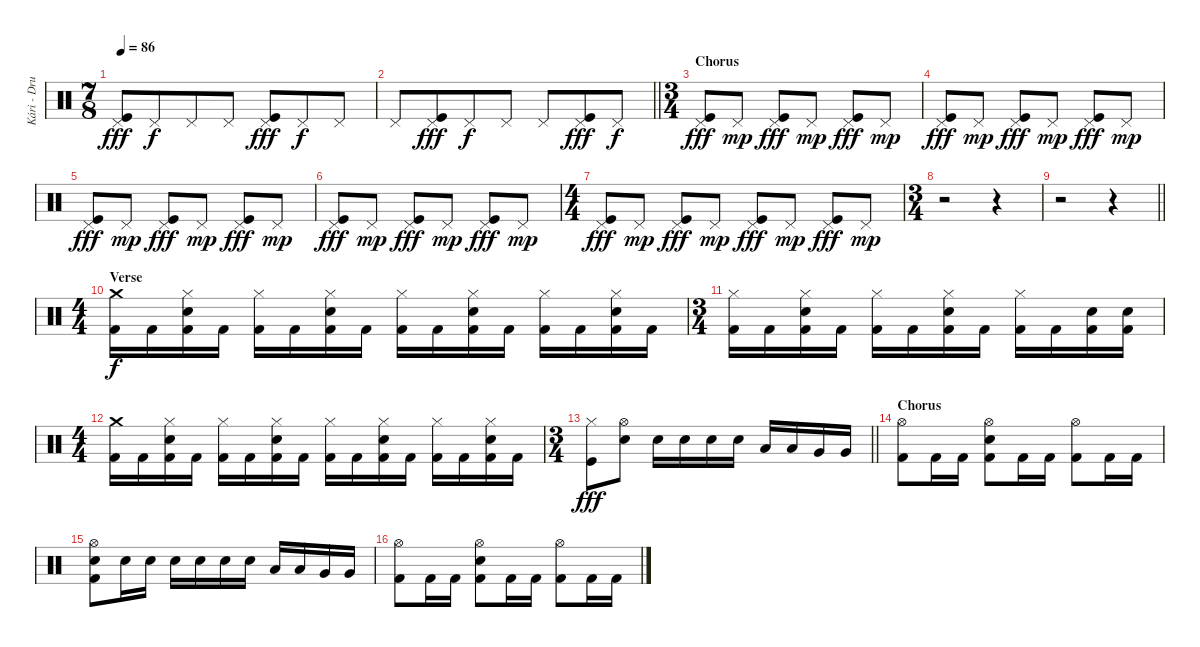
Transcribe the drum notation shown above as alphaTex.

\track ("Kári - Drums" "Kári - Dru") {instrument percussion}
\staff {score}
\articulation defaults
\ts (7 8)
\tempo 86
\clef neutral
\ks c
("Pedal Hi-Hat (hit)" "Kick (hit)").8{dy fff} "Pedal Hi-Hat (hit)".8{dy f} "Pedal Hi-Hat (hit)".8 "Pedal Hi-Hat (hit)".8 ("Pedal Hi-Hat (hit)" "Kick (hit)").8{dy fff} "Pedal Hi-Hat (hit)".8{dy f} "Pedal Hi-Hat (hit)".8 |
\barLineRight lightlight "Pedal Hi-Hat (hit)".8
("Pedal Hi-Hat (hit)" "Kick (hit)").8{dy fff} "Pedal Hi-Hat (hit)".8{dy f} "Pedal Hi-Hat (hit)".8 "Pedal Hi-Hat (hit)".8 ("Pedal Hi-Hat (hit)" "Kick (hit)").8{dy fff} "Pedal Hi-Hat (hit)".8{dy f} |
\ts (3 4)
\section ("" "Chorus")
("Pedal Hi-Hat (hit)" "Kick (hit)").8{dy fff} "Pedal Hi-Hat (hit)".8{dy mp} ("Pedal Hi-Hat (hit)" "Kick (hit)").8{dy fff} "Pedal Hi-Hat (hit)".8{dy mp} ("Pedal Hi-Hat (hit)" "Kick (hit)").8{dy fff} "Pedal Hi-Hat (hit)".8{dy mp} |
("Pedal Hi-Hat (hit)" "Kick (hit)").8{dy fff} "Pedal Hi-Hat (hit)".8{dy mp} ("Pedal Hi-Hat (hit)" "Kick (hit)").8{dy fff} "Pedal Hi-Hat (hit)".8{dy mp} ("Pedal Hi-Hat (hit)" "Kick (hit)").8{dy fff} "Pedal Hi-Hat (hit)".8{dy mp} |
("Pedal Hi-Hat (hit)" "Kick (hit)").8{dy fff} "Pedal Hi-Hat (hit)".8{dy mp} ("Pedal Hi-Hat (hit)" "Kick (hit)").8{dy fff} "Pedal Hi-Hat (hit)".8{dy mp} ("Pedal Hi-Hat (hit)" "Kick (hit)").8{dy fff} "Pedal Hi-Hat (hit)".8{dy mp} |
("Pedal Hi-Hat (hit)" "Kick (hit)").8{dy fff} "Pedal Hi-Hat (hit)".8{dy mp} ("Pedal Hi-Hat (hit)" "Kick (hit)").8{dy fff} "Pedal Hi-Hat (hit)".8{dy mp} ("Pedal Hi-Hat (hit)" "Kick (hit)").8{dy fff} "Pedal Hi-Hat (hit)".8{dy mp} |
\ts (4 4)
("Pedal Hi-Hat (hit)" "Kick (hit)").8{dy fff} "Pedal Hi-Hat (hit)".8{dy mp} ("Pedal Hi-Hat (hit)" "Kick (hit)").8{dy fff} "Pedal Hi-Hat (hit)".8{dy mp} ("Pedal Hi-Hat (hit)" "Kick (hit)").8{dy fff} "Pedal Hi-Hat (hit)".8{dy mp} ("Pedal Hi-Hat (hit)" "Kick (hit)").8{dy fff} "Pedal Hi-Hat (hit)".8{dy mp} |
\ts (3 4)
r.2 r.4 |
\barLineRight lightlight
r.2 r.4 |
\ts (4 4)
\section ("" "Verse")
("Crash medium (hit)" "Kick (hit) 2").16{dy f} "Kick (hit) 2".16 ("Hi-Hat (closed)" "Electric Snare (hit)" "Kick (hit) 2").16 "Kick (hit) 2".16 ("Hi-Hat (closed)" "Kick (hit) 2").16 "Kick (hit) 2".16 ("Hi-Hat (closed)" "Electric Snare (hit)" "Kick (hit) 2").16 "Kick (hit) 2".16 ("Hi-Hat (closed)" "Kick (hit) 2").16 "Kick (hit) 2".16 ("Hi-Hat (closed)" "Electric Snare (hit)" "Kick (hit) 2").16 "Kick (hit) 2".16 ("Hi-Hat (closed)" "Kick (hit) 2").16 "Kick (hit) 2".16 ("Hi-Hat (closed)" "Electric Snare (hit)" "Kick (hit) 2").16 "Kick (hit) 2".16 |
\ts (3 4)
("Hi-Hat (closed)" "Kick (hit) 2").16 "Kick (hit) 2".16 ("Hi-Hat (closed)" "Electric Snare (hit)" "Kick (hit) 2").16 "Kick (hit) 2".16 ("Hi-Hat (closed)" "Kick (hit) 2").16 "Kick (hit) 2".16 ("Hi-Hat (closed)" "Electric Snare (hit)" "Kick (hit) 2").16 "Kick (hit) 2".16 ("Hi-Hat (closed)" "Kick (hit) 2").16 "Kick (hit) 2".16 ("Electric Snare (hit)" "Kick (hit) 2").16 ("Electric Snare (hit)" "Kick (hit) 2").16 |
\ts (4 4)
("Crash medium (hit)" "Kick (hit) 2").16 "Kick (hit) 2".16 ("Hi-Hat (closed)" "Electric Snare (hit)" "Kick (hit) 2").16 "Kick (hit) 2".16 ("Hi-Hat (closed)" "Kick (hit) 2").16 "Kick (hit) 2".16 ("Hi-Hat (closed)" "Electric Snare (hit)" "Kick (hit) 2").16 "Kick (hit) 2".16 ("Hi-Hat (closed)" "Kick (hit) 2").16 "Kick (hit) 2".16 ("Hi-Hat (closed)" "Electric Snare (hit)" "Kick (hit) 2").16 "Kick (hit) 2".16 ("Hi-Hat (closed)" "Kick (hit) 2").16 "Kick (hit) 2".16 ("Hi-Hat (closed)" "Electric Snare (hit)" "Kick (hit) 2").16 "Kick (hit) 2".16 |
\ts (3 4)
\barLineRight lightlight
("Hi-Hat (closed)" "Kick (hit)").8{dy fff} ("Hi-Hat (open)" "Electric Snare (hit)").8 "Electric Snare (hit)".16 "Electric Snare (hit)".16 "Electric Snare (hit)".16 "Electric Snare (hit)".16 "Low Tom (hit)".16 "Low Tom (hit)".16 "Very Low Tom (hit)".16 "Very Low Tom (hit)".16 |
\section ("" "Chorus")
("Hi-Hat (open)" "Kick (hit) 2").8 "Kick (hit) 2".16 "Kick (hit) 2".16 ("Hi-Hat (open)" "Electric Snare (hit)" "Kick (hit) 2").8 "Kick (hit) 2".16 "Kick (hit) 2".16 ("Hi-Hat (open)" "Kick (hit) 2").8 "Kick (hit) 2".16 "Kick (hit) 2".16 |
("Hi-Hat (open)" "Electric Snare (hit)" "Kick (hit) 2").8 "Electric Snare (hit)".16 "Electric Snare (hit)".16 "Electric Snare (hit)".16 "Electric Snare (hit)".16 "Electric Snare (hit)".16 "Electric Snare (hit)".16 "Low Tom (hit)".16 "Low Tom (hit)".16 "Very Low Tom (hit)".16 "Very Low Tom (hit)".16 |
("Hi-Hat (open)" "Kick (hit) 2").8 "Kick (hit) 2".16 "Kick (hit) 2".16 ("Hi-Hat (open)" "Electric Snare (hit)" "Kick (hit) 2").8 "Kick (hit) 2".16 "Kick (hit) 2".16 ("Hi-Hat (open)" "Kick (hit) 2").8 "Kick (hit) 2".16 "Kick (hit) 2".16
